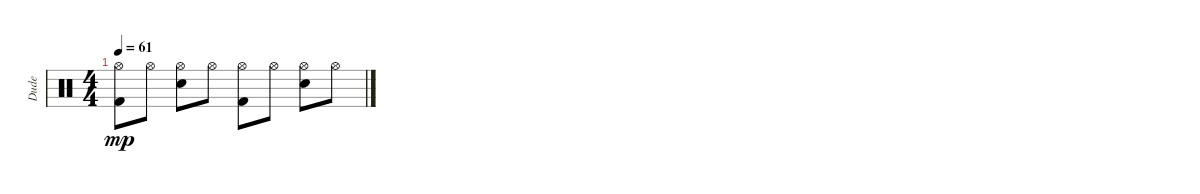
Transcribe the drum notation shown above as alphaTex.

\track ("Dude" "Dude") {instrument percussion}
\staff {score}
\articulation defaults
\ts (4 4)
\tempo 61
\clef neutral
\ks c
("Kick (hit) 2" "Hi-Hat (open)").8{dy mp} "Hi-Hat (open)".8 ("Electric Snare (hit)" "Hi-Hat (open)").8 "Hi-Hat (open)".8 ("Kick (hit) 2" "Hi-Hat (open)").8 "Hi-Hat (open)".8 ("Electric Snare (hit)" "Hi-Hat (open)").8 "Hi-Hat (open)".8
